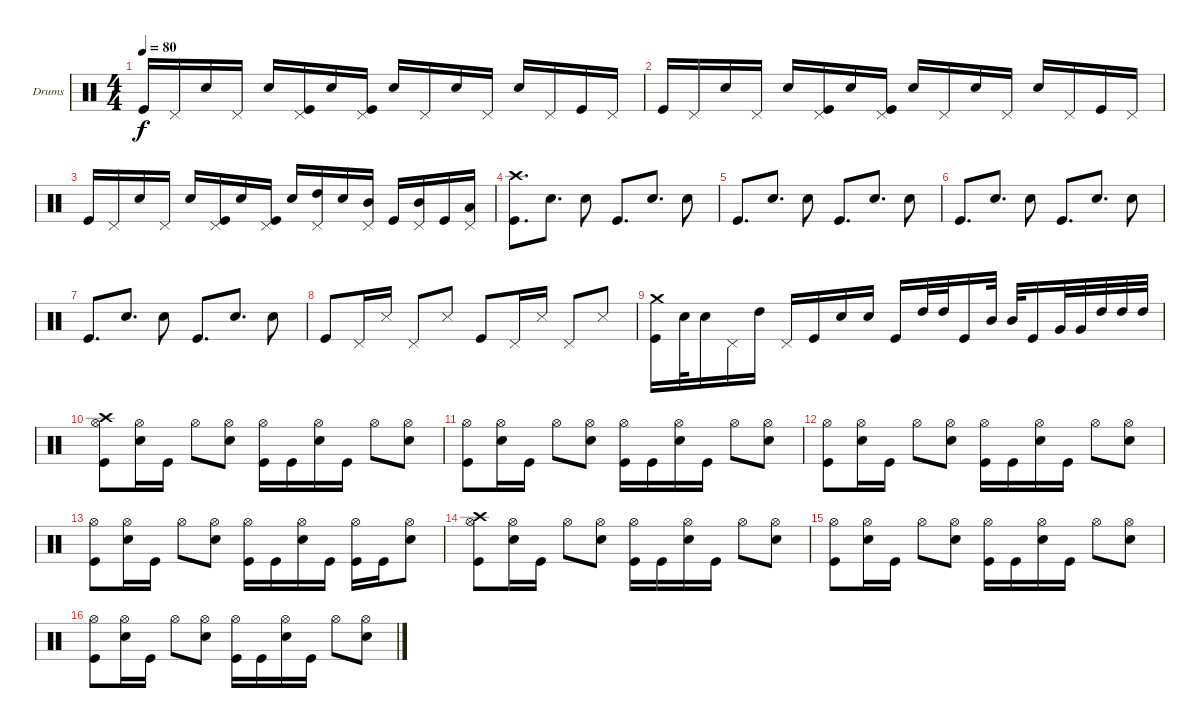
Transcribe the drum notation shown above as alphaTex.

\defaultSystemsLayout 4
\bracketExtendMode groupsimilarinstruments
\firstSystemTrackNameOrientation horizontal
\otherSystemsTrackNameOrientation horizontal
\track ("Drumkit" "Drums") {instrument percussion}
\staff {score}
\articulation defaults
\ts (4 4)
\tempo 80
\clef neutral
\scale
0.333333
\ks c "Kick (hit)".16{dy f} "Pedal Hi-Hat (hit)".16 "Snare (hit) 2".16 "Pedal Hi-Hat (hit)".16 "Snare (hit) 2".16
("Kick (hit)" "Pedal Hi-Hat (hit)").16 "Snare (hit) 2".16 ("Kick (hit)" "Pedal Hi-Hat (hit)").16 "Snare (hit) 2".16 "Pedal Hi-Hat (hit)".16 "Snare (hit) 2".16 "Pedal Hi-Hat (hit)".16 "Snare (hit) 2".16 "Pedal Hi-Hat (hit)".16 "Kick (hit)".16 "Pedal Hi-Hat (hit)".16 |
\scale
0.333333 "Kick (hit)".16 "Pedal Hi-Hat (hit)".16 "Snare (hit) 2".16 "Pedal Hi-Hat (hit)".16 "Snare (hit) 2".16 ("Kick (hit)" "Pedal Hi-Hat (hit)").16 "Snare (hit) 2".16 ("Kick (hit)" "Pedal Hi-Hat (hit)").16 "Snare (hit) 2".16 "Pedal Hi-Hat (hit)".16 "Snare (hit) 2".16 "Pedal Hi-Hat (hit)".16 "Snare (hit) 2".16 "Pedal Hi-Hat (hit)".16 "Kick (hit)".16 "Pedal Hi-Hat (hit)".16 |
\scale
0.333333 "Kick (hit)".16 "Pedal Hi-Hat (hit)".16 "Snare (hit) 2".16 "Pedal Hi-Hat (hit)".16 "Snare (hit) 2".16 ("Kick (hit)" "Pedal Hi-Hat (hit)").16 "Snare (hit) 2".16 ("Kick (hit)" "Pedal Hi-Hat (hit)").16 "Snare (hit) 2".16 ("Pedal Hi-Hat (hit)" "High Tom (hit)").16 "Snare (hit) 2".16 ("Pedal Hi-Hat (hit)" "Mid Tom (hit)").16 "Kick (hit)".16 ("Pedal Hi-Hat (hit)" "Mid Tom (hit)").16 "Kick (hit)".16 ("Pedal Hi-Hat (hit)" "Low Tom (hit)").16 |
\scale
0.333333 ("Kick (hit)" "Crash high (hit)").8{d} "Snare (hit) 2".8{d} "Snare (hit) 2".8 "Kick (hit)".8{d} "Snare (hit) 2".8{d} "Snare (hit) 2".8 |
\scale
0.333333 "Kick (hit)".8{d} "Snare (hit) 2".8{d} "Snare (hit) 2".8 "Kick (hit)".8{d} "Snare (hit) 2".8{d} "Snare (hit) 2".8 |
\scale
0.333333 "Kick (hit)".8{d} "Snare (hit) 2".8{d} "Snare (hit) 2".8 "Kick (hit)".8{d} "Snare (hit) 2".8{d} "Snare (hit) 2".8 |
\scale
0.333333 "Kick (hit)".8{d} "Snare (hit) 2".8{d} "Snare (hit) 2".8 "Kick (hit)".8{d} "Snare (hit) 2".8{d} "Snare (hit) 2".8 |
\scale
0.333333 "Kick (hit)".8 "Pedal Hi-Hat (hit)".16 "Snare (side stick) 3".16 "Pedal Hi-Hat (hit)".8 "Snare (side stick) 3".8 "Kick (hit)".8 "Pedal Hi-Hat (hit)".16 "Snare (side stick) 3".16 "Pedal Hi-Hat (hit)".8 "Snare (side stick) 3".8 |
\scale
0.333333 ("Kick (hit)" "Crash medium (hit)").16 "Snare (hit) 2".32 "Snare (hit) 2".16 "Pedal Hi-Hat (hit)".16 "High Tom (hit)".16 "Pedal Hi-Hat (hit)".16 "Kick (hit)".16 "Snare (hit) 2".16 "Snare (hit) 2".16 "Kick (hit)".16 "High Tom (hit)".32 "High Tom (hit)".32 "Kick (hit)".16 "Mid Tom (hit)".32 "Mid Tom (hit)".32 "Kick (hit)".16 "Very Low Tom (hit)".32 "Very Low Tom (hit)".32 "High Tom (hit)".32 "High Tom (hit)".32 "High Tom (hit)".32 |
\scale
0.333333 ("Hi-Hat (open)" "Kick (hit)" "Crash high (hit)").8 ("Hi-Hat (open)" "Snare (hit) 2").16 "Kick (hit)".16 "Hi-Hat (open)".8 ("Hi-Hat (open)" "Snare (hit) 2").8 ("Hi-Hat (open)" "Kick (hit)").16 "Kick (hit)".16 ("Hi-Hat (open)" "Snare (hit) 2").16 "Kick (hit)".16 "Hi-Hat (open)".8 ("Snare (hit) 2" "Hi-Hat (open)").8 |
\scale
0.333333 ("Hi-Hat (open)" "Kick (hit)").8 ("Hi-Hat (open)" "Snare (hit) 2").16 "Kick (hit)".16 "Hi-Hat (open)".8 ("Hi-Hat (open)" "Snare (hit) 2").8 ("Hi-Hat (open)" "Kick (hit)").16 "Kick (hit)".16 ("Hi-Hat (open)" "Snare (hit) 2").16 "Kick (hit)".16 "Hi-Hat (open)".8 ("Snare (hit) 2" "Hi-Hat (open)").8 |
\scale
0.333333 ("Hi-Hat (open)" "Kick (hit)").8 ("Hi-Hat (open)" "Snare (hit) 2").16 "Kick (hit)".16 "Hi-Hat (open)".8 ("Hi-Hat (open)" "Snare (hit) 2").8 ("Hi-Hat (open)" "Kick (hit)").16 "Kick (hit)".16 ("Hi-Hat (open)" "Snare (hit) 2").16 "Kick (hit)".16 "Hi-Hat (open)".8 ("Snare (hit) 2" "Hi-Hat (open)").8 |
\scale
0.333333 ("Hi-Hat (open)" "Kick (hit)").8 ("Hi-Hat (open)" "Snare (hit) 2").16 "Kick (hit)".16 "Hi-Hat (open)".8 ("Hi-Hat (open)" "Snare (hit) 2").8 ("Hi-Hat (open)" "Kick (hit)").16 "Kick (hit)".16 ("Hi-Hat (open)" "Snare (hit) 2").16 "Kick (hit)".16 ("Hi-Hat (open)" "Kick (hit)").16 "Kick (hit)".16 ("Snare (hit) 2" "Hi-Hat (open)").8 |
\scale
0.333333 ("Hi-Hat (open)" "Kick (hit)" "Crash high (hit)").8 ("Hi-Hat (open)" "Snare (hit) 2").16 "Kick (hit)".16 "Hi-Hat (open)".8 ("Hi-Hat (open)" "Snare (hit) 2").8 ("Hi-Hat (open)" "Kick (hit)").16 "Kick (hit)".16 ("Hi-Hat (open)" "Snare (hit) 2").16 "Kick (hit)".16 "Hi-Hat (open)".8 ("Snare (hit) 2" "Hi-Hat (open)").8 |
\scale
0.333333 ("Hi-Hat (open)" "Kick (hit)").8 ("Hi-Hat (open)" "Snare (hit) 2").16 "Kick (hit)".16 "Hi-Hat (open)".8 ("Hi-Hat (open)" "Snare (hit) 2").8 ("Hi-Hat (open)" "Kick (hit)").16 "Kick (hit)".16 ("Hi-Hat (open)" "Snare (hit) 2").16 "Kick (hit)".16 "Hi-Hat (open)".8 ("Snare (hit) 2" "Hi-Hat (open)").8 |
\scale
0.333333 ("Hi-Hat (open)" "Kick (hit)").8 ("Hi-Hat (open)" "Snare (hit) 2").16 "Kick (hit)".16 "Hi-Hat (open)".8 ("Hi-Hat (open)" "Snare (hit) 2").8 ("Hi-Hat (open)" "Kick (hit)").16 "Kick (hit)".16 ("Hi-Hat (open)" "Snare (hit) 2").16 "Kick (hit)".16 "Hi-Hat (open)".8 ("Snare (hit) 2" "Hi-Hat (open)").8
